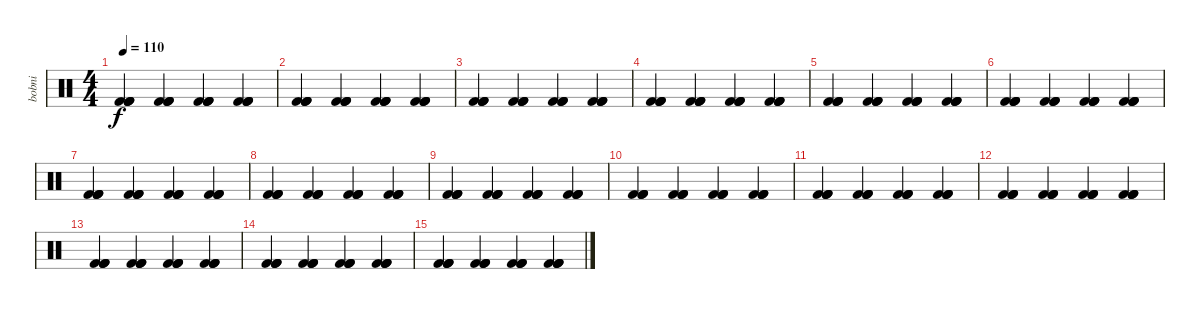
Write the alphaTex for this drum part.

\track ("bobni" "bobni") {instrument percussion}
\staff {score}
\articulation defaults
\ts (4 4)
\tempo 110
\clef neutral
\ks c
("Kick (hit) 2" "Kick (hit) 2" "Kick (hit) 2" "Kick (hit) 2").4{dy f} ("Kick (hit) 2" "Kick (hit) 2" "Kick (hit) 2" "Kick (hit) 2").4 ("Kick (hit) 2" "Kick (hit) 2" "Kick (hit) 2" "Kick (hit) 2").4 ("Kick (hit) 2" "Kick (hit) 2" "Kick (hit) 2" "Kick (hit) 2").4 |
("Kick (hit) 2" "Kick (hit) 2" "Kick (hit) 2" "Kick (hit) 2").4 ("Kick (hit) 2" "Kick (hit) 2" "Kick (hit) 2" "Kick (hit) 2").4 ("Kick (hit) 2" "Kick (hit) 2" "Kick (hit) 2" "Kick (hit) 2").4 ("Kick (hit) 2" "Kick (hit) 2" "Kick (hit) 2" "Kick (hit) 2").4 |
("Kick (hit) 2" "Kick (hit) 2" "Kick (hit) 2" "Kick (hit) 2").4 ("Kick (hit) 2" "Kick (hit) 2" "Kick (hit) 2" "Kick (hit) 2").4 ("Kick (hit) 2" "Kick (hit) 2" "Kick (hit) 2" "Kick (hit) 2").4 ("Kick (hit) 2" "Kick (hit) 2" "Kick (hit) 2" "Kick (hit) 2").4 |
("Kick (hit) 2" "Kick (hit) 2" "Kick (hit) 2" "Kick (hit) 2").4{volume 0} ("Kick (hit) 2" "Kick (hit) 2" "Kick (hit) 2" "Kick (hit) 2").4 ("Kick (hit) 2" "Kick (hit) 2" "Kick (hit) 2" "Kick (hit) 2").4 ("Kick (hit) 2" "Kick (hit) 2" "Kick (hit) 2" "Kick (hit) 2").4 |
("Kick (hit) 2" "Kick (hit) 2" "Kick (hit) 2" "Kick (hit) 2").4 ("Kick (hit) 2" "Kick (hit) 2" "Kick (hit) 2" "Kick (hit) 2").4 ("Kick (hit) 2" "Kick (hit) 2" "Kick (hit) 2" "Kick (hit) 2").4 ("Kick (hit) 2" "Kick (hit) 2" "Kick (hit) 2" "Kick (hit) 2").4 |
("Kick (hit) 2" "Kick (hit) 2" "Kick (hit) 2" "Kick (hit) 2").4 ("Kick (hit) 2" "Kick (hit) 2" "Kick (hit) 2" "Kick (hit) 2").4 ("Kick (hit) 2" "Kick (hit) 2" "Kick (hit) 2" "Kick (hit) 2").4 ("Kick (hit) 2" "Kick (hit) 2" "Kick (hit) 2" "Kick (hit) 2").4 |
("Kick (hit) 2" "Kick (hit) 2" "Kick (hit) 2" "Kick (hit) 2").4 ("Kick (hit) 2" "Kick (hit) 2" "Kick (hit) 2" "Kick (hit) 2").4 ("Kick (hit) 2" "Kick (hit) 2" "Kick (hit) 2" "Kick (hit) 2").4 ("Kick (hit) 2" "Kick (hit) 2" "Kick (hit) 2" "Kick (hit) 2").4 |
("Kick (hit) 2" "Kick (hit) 2" "Kick (hit) 2" "Kick (hit) 2").4 ("Kick (hit) 2" "Kick (hit) 2" "Kick (hit) 2" "Kick (hit) 2").4 ("Kick (hit) 2" "Kick (hit) 2" "Kick (hit) 2" "Kick (hit) 2").4 ("Kick (hit) 2" "Kick (hit) 2" "Kick (hit) 2" "Kick (hit) 2").4 |
("Kick (hit) 2" "Kick (hit) 2" "Kick (hit) 2" "Kick (hit) 2").4 ("Kick (hit) 2" "Kick (hit) 2" "Kick (hit) 2" "Kick (hit) 2").4 ("Kick (hit) 2" "Kick (hit) 2" "Kick (hit) 2" "Kick (hit) 2").4 ("Kick (hit) 2" "Kick (hit) 2" "Kick (hit) 2" "Kick (hit) 2").4 |
("Kick (hit) 2" "Kick (hit) 2" "Kick (hit) 2" "Kick (hit) 2").4 ("Kick (hit) 2" "Kick (hit) 2" "Kick (hit) 2" "Kick (hit) 2").4 ("Kick (hit) 2" "Kick (hit) 2" "Kick (hit) 2" "Kick (hit) 2").4 ("Kick (hit) 2" "Kick (hit) 2" "Kick (hit) 2" "Kick (hit) 2").4 |
("Kick (hit) 2" "Kick (hit) 2" "Kick (hit) 2" "Kick (hit) 2").4 ("Kick (hit) 2" "Kick (hit) 2" "Kick (hit) 2" "Kick (hit) 2").4 ("Kick (hit) 2" "Kick (hit) 2" "Kick (hit) 2" "Kick (hit) 2").4 ("Kick (hit) 2" "Kick (hit) 2" "Kick (hit) 2" "Kick (hit) 2").4 |
("Kick (hit) 2" "Kick (hit) 2" "Kick (hit) 2" "Kick (hit) 2").4 ("Kick (hit) 2" "Kick (hit) 2" "Kick (hit) 2" "Kick (hit) 2").4 ("Kick (hit) 2" "Kick (hit) 2" "Kick (hit) 2" "Kick (hit) 2").4 ("Kick (hit) 2" "Kick (hit) 2" "Kick (hit) 2" "Kick (hit) 2").4 |
("Kick (hit) 2" "Kick (hit) 2" "Kick (hit) 2" "Kick (hit) 2").4 ("Kick (hit) 2" "Kick (hit) 2" "Kick (hit) 2" "Kick (hit) 2").4 ("Kick (hit) 2" "Kick (hit) 2" "Kick (hit) 2" "Kick (hit) 2").4 ("Kick (hit) 2" "Kick (hit) 2" "Kick (hit) 2" "Kick (hit) 2").4 |
("Kick (hit) 2" "Kick (hit) 2" "Kick (hit) 2" "Kick (hit) 2").4 ("Kick (hit) 2" "Kick (hit) 2" "Kick (hit) 2" "Kick (hit) 2").4 ("Kick (hit) 2" "Kick (hit) 2" "Kick (hit) 2" "Kick (hit) 2").4 ("Kick (hit) 2" "Kick (hit) 2" "Kick (hit) 2" "Kick (hit) 2").4 |
("Kick (hit) 2" "Kick (hit) 2" "Kick (hit) 2" "Kick (hit) 2").4 ("Kick (hit) 2" "Kick (hit) 2" "Kick (hit) 2" "Kick (hit) 2").4 ("Kick (hit) 2" "Kick (hit) 2" "Kick (hit) 2" "Kick (hit) 2").4 ("Kick (hit) 2" "Kick (hit) 2" "Kick (hit) 2" "Kick (hit) 2").4
